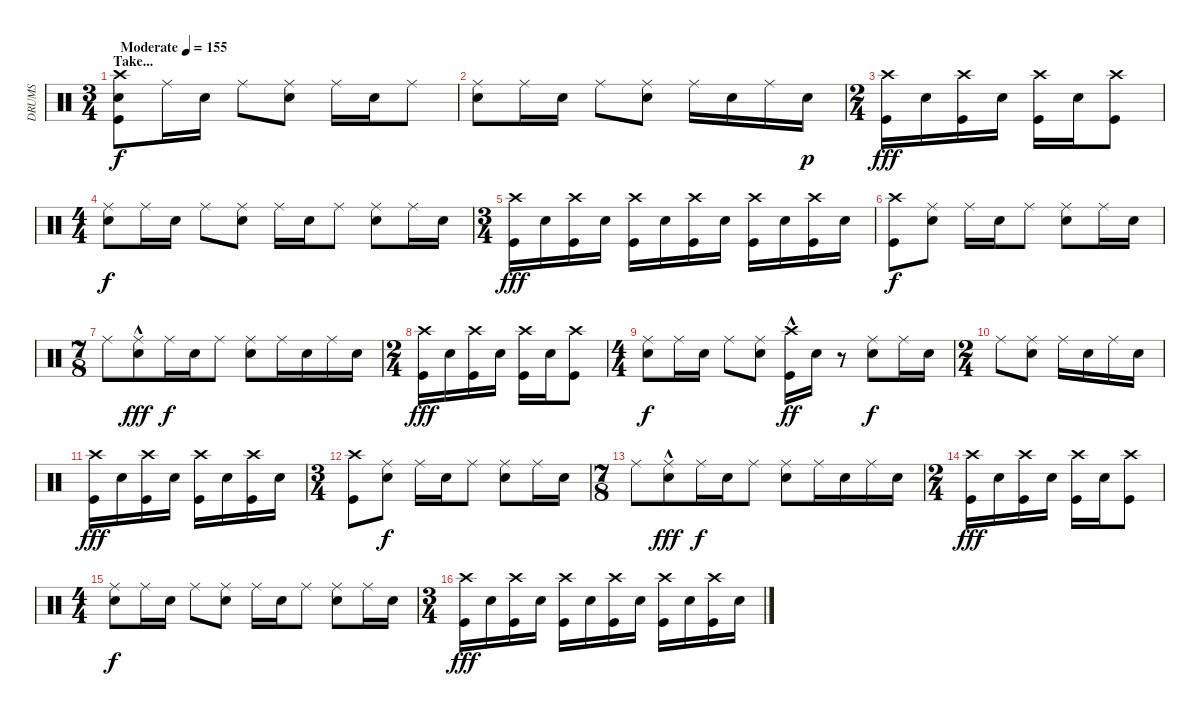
\track ("DRUMS" "DRUMS") {instrument percussion}
\staff {score}
\articulation defaults
\ts (3 4)
\section ("" "Take...")
\tempo (155 "Moderate")
\clef neutral
\ks c
("Crash high (hit)" "Kick (hit)" "Snare (hit) 2").8{dy f} "Ride (middle)".16 "Snare (hit) 2".16 "Ride (middle)".8 ("Ride (middle)" "Snare (hit) 2").8 "Ride (middle)".16 "Snare (hit) 2".16 "Ride (middle)".8 |
("Ride (middle)" "Snare (hit) 2").8 "Ride (middle)".16 "Snare (hit) 2".16 "Ride (middle)".8 ("Snare (hit) 2" "Ride (middle)").8 "Ride (middle)".16 "Snare (hit) 2".16 "Ride (middle)".16 "Snare (hit) 2".16{dy p} |
\ts (2 4)
("Crash high (hit)" "Kick (hit)").16{dy fff} "Snare (hit) 2".16 ("Kick (hit)" "Crash high (hit)").16 "Snare (hit) 2".16 ("Kick (hit)" "Crash high (hit)").16 "Snare (hit) 2".16 ("Crash high (hit)" "Kick (hit)").8 |
\ts (4 4)
("Ride (middle)" "Snare (hit) 2").8{dy f} "Ride (middle)".16 "Snare (hit) 2".16 "Ride (middle)".8 ("Ride (middle)" "Snare (hit) 2").8 "Ride (middle)".16 "Snare (hit) 2".16 "Ride (middle)".8 ("Ride (middle)" "Snare (hit) 2").8 "Ride (middle)".16 "Snare (hit) 2".16 |
\ts (3 4)
("Crash high (hit)" "Kick (hit)").16{dy fff} "Snare (hit) 2".16 ("Kick (hit)" "Crash high (hit)").16 "Snare (hit) 2".16 ("Kick (hit)" "Crash high (hit)").16 "Snare (hit) 2".16 ("Kick (hit)" "Crash high (hit)").16 "Snare (hit) 2".16 ("Kick (hit)" "Crash high (hit)").16 "Snare (hit) 2".16 ("Kick (hit)" "Crash high (hit)").16 "Snare (hit) 2".16 |
("Crash high (hit)" "Kick (hit)").8{dy f} ("Ride (middle)" "Snare (hit) 2").8 "Ride (middle)".16 "Snare (hit) 2".16 "Ride (middle)".8 ("Snare (hit) 2" "Ride (middle)").8 "Ride (middle)".16 "Snare (hit) 2".16 |
\ts (7 8)
"Ride (middle)".8 ("Ride (middle)" "Snare (hit) 2"{hac}).8{dy fff} "Ride (middle)".16{dy f} "Snare (hit) 2".16 "Ride (middle)".8 ("Snare (hit) 2" "Ride (middle)").8 "Ride (middle)".16 "Snare (hit) 2".16 "Ride (middle)".16 "Snare (hit) 2".16 |
\ts (2 4)
("Crash high (hit)" "Kick (hit)").16{dy fff} "Snare (hit) 2".16 ("Kick (hit)" "Crash high (hit)").16 "Snare (hit) 2".16 ("Kick (hit)" "Crash high (hit)").16 "Snare (hit) 2".16 ("Crash high (hit)" "Kick (hit)").8 |
\ts (4 4)
("Ride (middle)" "Snare (hit) 2").8{dy f} "Ride (middle)".16 "Snare (hit) 2".16 "Ride (middle)".8 ("Ride (middle)" "Snare (hit) 2").8 ("Kick (hit)"{hac} "Crash high (hit)").16{dy ff} "Snare (hit) 2".16 r.8 ("Snare (hit) 2" "Ride (middle)").8{dy f} "Ride (middle)".16 "Snare (hit) 2".16 |
\ts (2 4)
"Ride (middle)".8 ("Snare (hit) 2" "Ride (middle)").8 "Ride (middle)".16 "Snare (hit) 2".16 "Ride (middle)".16 "Snare (hit) 2".16 |
("Crash high (hit)" "Kick (hit)").16{dy fff} "Snare (hit) 2".16 ("Kick (hit)" "Crash high (hit)").16 "Snare (hit) 2".16 ("Kick (hit)" "Crash high (hit)").16 "Snare (hit) 2".16 ("Crash high (hit)" "Kick (hit)").16 "Snare (hit) 2".16 |
\ts (3 4)
("Crash high (hit)" "Kick (hit)").8 ("Ride (middle)" "Snare (hit) 2").8{dy f} "Ride (middle)".16 "Snare (hit) 2".16 "Ride (middle)".8 ("Snare (hit) 2" "Ride (middle)").8 "Ride (middle)".16 "Snare (hit) 2".16 |
\ts (7 8)
"Ride (middle)".8 ("Ride (middle)" "Snare (hit) 2"{hac}).8{dy fff} "Ride (middle)".16{dy f} "Snare (hit) 2".16 "Ride (middle)".8 ("Snare (hit) 2" "Ride (middle)").8 "Ride (middle)".16 "Snare (hit) 2".16 "Ride (middle)".16 "Snare (hit) 2".16 |
\ts (2 4)
("Crash high (hit)" "Kick (hit)").16{dy fff} "Snare (hit) 2".16 ("Kick (hit)" "Crash high (hit)").16 "Snare (hit) 2".16 ("Kick (hit)" "Crash high (hit)").16 "Snare (hit) 2".16 ("Crash high (hit)" "Kick (hit)").8 |
\ts (4 4)
("Ride (middle)" "Snare (hit) 2").8{dy f} "Ride (middle)".16 "Snare (hit) 2".16 "Ride (middle)".8 ("Ride (middle)" "Snare (hit) 2").8 "Ride (middle)".16 "Snare (hit) 2".16 "Ride (middle)".8 ("Ride (middle)" "Snare (hit) 2").8 "Ride (middle)".16 "Snare (hit) 2".16 |
\ts (3 4)
("Crash high (hit)" "Kick (hit)").16{dy fff} "Snare (hit) 2".16 ("Kick (hit)" "Crash high (hit)").16 "Snare (hit) 2".16 ("Kick (hit)" "Crash high (hit)").16 "Snare (hit) 2".16 ("Kick (hit)" "Crash high (hit)").16 "Snare (hit) 2".16 ("Kick (hit)" "Crash high (hit)").16 "Snare (hit) 2".16 ("Kick (hit)" "Crash high (hit)").16 "Snare (hit) 2".16
